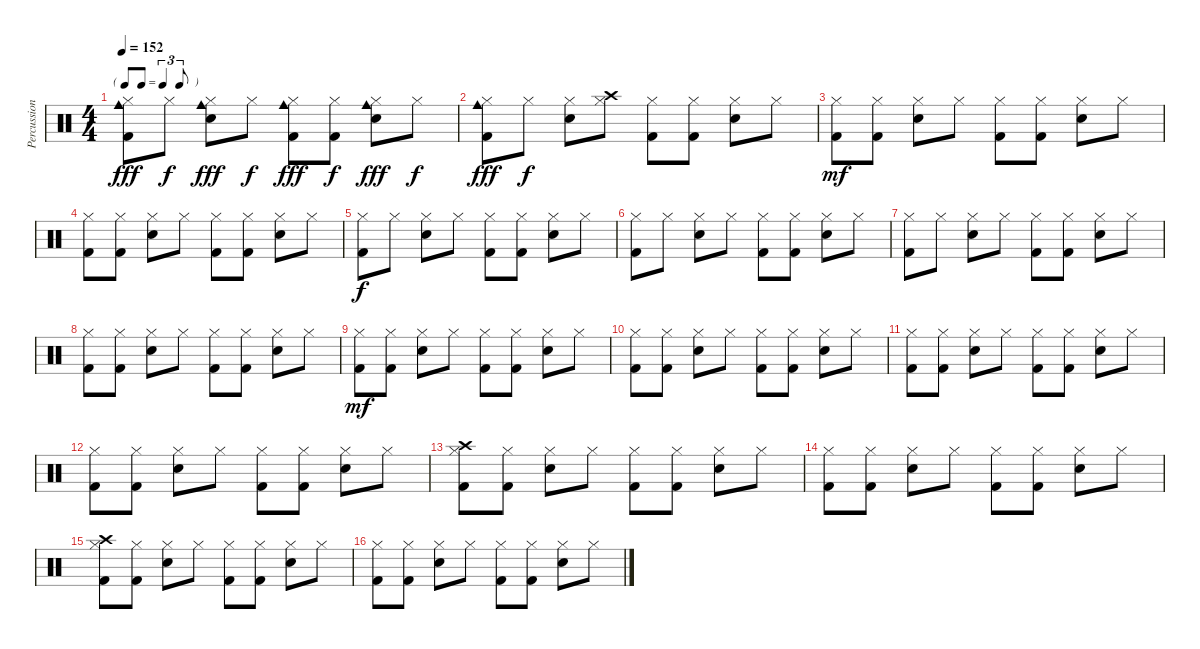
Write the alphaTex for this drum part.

\track ("Percussion" "Percussion") {instrument percussion}
\staff {score}
\articulation defaults
\ts (4 4)
\tf triplet8th
\tempo 152
\clef neutral
\ks c
("Cowbell medium (hit)" "Hi-Hat (closed)" "Kick (hit) 2").8{dy fff} "Hi-Hat (closed)".8{dy f} ("Cowbell medium (hit)" "Hi-Hat (closed)" "Electric Snare (hit)").8{dy fff} "Hi-Hat (closed)".8{dy f} ("Cowbell medium (hit)" "Hi-Hat (closed)" "Kick (hit) 2").8{dy fff} ("Hi-Hat (closed)" "Kick (hit) 2").8{dy f} ("Cowbell medium (hit)" "Hi-Hat (closed)" "Electric Snare (hit)").8{dy fff} "Hi-Hat (closed)".8{dy f} |
("Cowbell medium (hit)" "Hi-Hat (closed)" "Kick (hit) 2").8{dy fff} "Hi-Hat (closed)".8{dy f} ("Hi-Hat (closed)" "Electric Snare (hit)").8 ("Crash high (hit)" "Hi-Hat (closed)").8 ("Hi-Hat (closed)" "Kick (hit) 2").8 ("Hi-Hat (closed)" "Kick (hit) 2").8 ("Hi-Hat (closed)" "Electric Snare (hit)").8 "Hi-Hat (closed)".8 |
("Hi-Hat (closed)" "Kick (hit) 2").8{dy mf} ("Hi-Hat (closed)" "Kick (hit) 2").8 ("Hi-Hat (closed)" "Electric Snare (hit)").8 "Hi-Hat (closed)".8 ("Hi-Hat (closed)" "Kick (hit) 2").8 ("Hi-Hat (closed)" "Kick (hit) 2").8 ("Hi-Hat (closed)" "Electric Snare (hit)").8 "Hi-Hat (closed)".8 |
("Hi-Hat (closed)" "Kick (hit) 2").8 ("Hi-Hat (closed)" "Kick (hit) 2").8 ("Hi-Hat (closed)" "Electric Snare (hit)").8 "Hi-Hat (closed)".8 ("Hi-Hat (closed)" "Kick (hit) 2").8 ("Hi-Hat (closed)" "Kick (hit) 2").8 ("Hi-Hat (closed)" "Electric Snare (hit)").8 "Hi-Hat (closed)".8 |
("Hi-Hat (closed)" "Kick (hit) 2").8{dy f} "Hi-Hat (closed)".8 ("Hi-Hat (closed)" "Electric Snare (hit)").8 "Hi-Hat (closed)".8 ("Hi-Hat (closed)" "Kick (hit) 2").8 ("Hi-Hat (closed)" "Kick (hit) 2").8 ("Hi-Hat (closed)" "Electric Snare (hit)").8 "Hi-Hat (closed)".8 |
("Hi-Hat (closed)" "Kick (hit) 2").8 "Hi-Hat (closed)".8 ("Hi-Hat (closed)" "Electric Snare (hit)").8 "Hi-Hat (closed)".8 ("Hi-Hat (closed)" "Kick (hit) 2").8 ("Hi-Hat (closed)" "Kick (hit) 2").8 ("Hi-Hat (closed)" "Electric Snare (hit)").8 "Hi-Hat (closed)".8 |
("Hi-Hat (closed)" "Kick (hit) 2").8 "Hi-Hat (closed)".8 ("Hi-Hat (closed)" "Electric Snare (hit)").8 "Hi-Hat (closed)".8 ("Hi-Hat (closed)" "Kick (hit) 2").8 ("Hi-Hat (closed)" "Kick (hit) 2").8 ("Hi-Hat (closed)" "Electric Snare (hit)").8 "Hi-Hat (closed)".8 |
("Hi-Hat (closed)" "Kick (hit) 2").8 ("Hi-Hat (closed)" "Kick (hit) 2").8 ("Hi-Hat (closed)" "Electric Snare (hit)").8 "Hi-Hat (closed)".8 ("Hi-Hat (closed)" "Kick (hit) 2").8 ("Hi-Hat (closed)" "Kick (hit) 2").8 ("Hi-Hat (closed)" "Electric Snare (hit)").8 "Hi-Hat (closed)".8 |
("Hi-Hat (closed)" "Kick (hit) 2").8{dy mf} ("Hi-Hat (closed)" "Kick (hit) 2").8 ("Hi-Hat (closed)" "Electric Snare (hit)").8 "Hi-Hat (closed)".8 ("Hi-Hat (closed)" "Kick (hit) 2").8 ("Hi-Hat (closed)" "Kick (hit) 2").8 ("Hi-Hat (closed)" "Electric Snare (hit)").8 "Hi-Hat (closed)".8 |
("Hi-Hat (closed)" "Kick (hit) 2").8 ("Hi-Hat (closed)" "Kick (hit) 2").8 ("Hi-Hat (closed)" "Electric Snare (hit)").8 "Hi-Hat (closed)".8 ("Hi-Hat (closed)" "Kick (hit) 2").8 ("Hi-Hat (closed)" "Kick (hit) 2").8 ("Hi-Hat (closed)" "Electric Snare (hit)").8 "Hi-Hat (closed)".8 |
("Hi-Hat (closed)" "Kick (hit) 2").8 ("Hi-Hat (closed)" "Kick (hit) 2").8 ("Hi-Hat (closed)" "Electric Snare (hit)").8 "Hi-Hat (closed)".8 ("Hi-Hat (closed)" "Kick (hit) 2").8 ("Hi-Hat (closed)" "Kick (hit) 2").8 ("Hi-Hat (closed)" "Electric Snare (hit)").8 "Hi-Hat (closed)".8 |
("Hi-Hat (closed)" "Kick (hit) 2").8 ("Hi-Hat (closed)" "Kick (hit) 2").8 ("Hi-Hat (closed)" "Electric Snare (hit)").8 "Hi-Hat (closed)".8 ("Hi-Hat (closed)" "Kick (hit) 2").8 ("Hi-Hat (closed)" "Kick (hit) 2").8 ("Hi-Hat (closed)" "Electric Snare (hit)").8 "Hi-Hat (closed)".8 |
("Crash high (hit)" "Hi-Hat (closed)" "Kick (hit) 2").8 ("Hi-Hat (closed)" "Kick (hit) 2").8 ("Hi-Hat (closed)" "Electric Snare (hit)").8 "Hi-Hat (closed)".8 ("Hi-Hat (closed)" "Kick (hit) 2").8 ("Hi-Hat (closed)" "Kick (hit) 2").8 ("Hi-Hat (closed)" "Electric Snare (hit)").8 "Hi-Hat (closed)".8 |
("Hi-Hat (closed)" "Kick (hit) 2").8 ("Hi-Hat (closed)" "Kick (hit) 2").8 ("Hi-Hat (closed)" "Electric Snare (hit)").8 "Hi-Hat (closed)".8 ("Hi-Hat (closed)" "Kick (hit) 2").8 ("Hi-Hat (closed)" "Kick (hit) 2").8 ("Hi-Hat (closed)" "Electric Snare (hit)").8 "Hi-Hat (closed)".8 |
("Crash high (hit)" "Hi-Hat (closed)" "Kick (hit) 2").8 ("Hi-Hat (closed)" "Kick (hit) 2").8 ("Hi-Hat (closed)" "Electric Snare (hit)").8 "Hi-Hat (closed)".8 ("Hi-Hat (closed)" "Kick (hit) 2").8 ("Hi-Hat (closed)" "Kick (hit) 2").8 ("Hi-Hat (closed)" "Electric Snare (hit)").8 "Hi-Hat (closed)".8 |
("Hi-Hat (closed)" "Kick (hit) 2").8 ("Hi-Hat (closed)" "Kick (hit) 2").8 ("Hi-Hat (closed)" "Electric Snare (hit)").8 "Hi-Hat (closed)".8 ("Hi-Hat (closed)" "Kick (hit) 2").8 ("Hi-Hat (closed)" "Kick (hit) 2").8 ("Hi-Hat (closed)" "Electric Snare (hit)").8 "Hi-Hat (closed)".8
